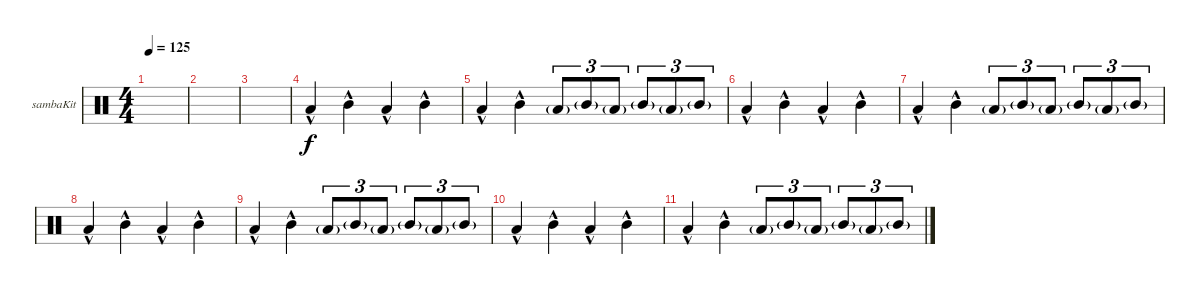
\defaultSystemsLayout 4
\bracketExtendMode groupsimilarinstruments
\firstSystemTrackNameOrientation horizontal
\otherSystemsTrackNameOrientation horizontal
\track ("Kit-Samba" "sambaKit") {instrument percussion}
\staff {score}
\articulation defaults
\ts (4 4)
\tempo 125
\clef neutral
\scale
0.333333
\ks c
|
\scale
0.333333 |
\scale
0.333333 |
\scale
0.333333 "Low Tom (hit)"{hac}.4 "Mid Tom (hit)"{hac}.4 "Low Tom (hit)"{hac}.4 "Mid Tom (hit)"{hac}.4 |
\scale
0.333333 "Low Tom (hit)"{hac}.4 "Mid Tom (hit)"{hac}.4 "Low Tom (hit)"{g}.8{tu (3 2)} "Mid Tom (hit)"{g}.8{tu (3 2)} "Low Tom (hit)"{g}.8{tu (3 2)} "Mid Tom (hit)"{g}.8{tu (3 2)} "Low Tom (hit)"{g}.8{tu (3 2)} "Mid Tom (hit)"{g}.8{tu (3 2)} |
\scale
0.333333 "Low Tom (hit)"{hac}.4 "Mid Tom (hit)"{hac}.4 "Low Tom (hit)"{hac}.4 "Mid Tom (hit)"{hac}.4 |
\scale
0.333333 "Low Tom (hit)"{hac}.4 "Mid Tom (hit)"{hac}.4 "Low Tom (hit)"{g}.8{tu (3 2)} "Mid Tom (hit)"{g}.8{tu (3 2)} "Low Tom (hit)"{g}.8{tu (3 2)} "Mid Tom (hit)"{g}.8{tu (3 2)} "Low Tom (hit)"{g}.8{tu (3 2)} "Mid Tom (hit)"{g}.8{tu (3 2)} |
\scale
0.333333 "Low Tom (hit)"{hac}.4 "Mid Tom (hit)"{hac}.4 "Low Tom (hit)"{hac}.4 "Mid Tom (hit)"{hac}.4 |
\scale
0.333333 "Low Tom (hit)"{hac}.4 "Mid Tom (hit)"{hac}.4 "Low Tom (hit)"{g}.8{tu (3 2)} "Mid Tom (hit)"{g}.8{tu (3 2)} "Low Tom (hit)"{g}.8{tu (3 2)} "Mid Tom (hit)"{g}.8{tu (3 2)} "Low Tom (hit)"{g}.8{tu (3 2)} "Mid Tom (hit)"{g}.8{tu (3 2)} |
\scale
0.333333 "Low Tom (hit)"{hac}.4 "Mid Tom (hit)"{hac}.4 "Low Tom (hit)"{hac}.4 "Mid Tom (hit)"{hac}.4 |
\scale
0.333333 "Low Tom (hit)"{hac}.4 "Mid Tom (hit)"{hac}.4 "Low Tom (hit)"{g}.8{tu (3 2)} "Mid Tom (hit)"{g}.8{tu (3 2)} "Low Tom (hit)"{g}.8{tu (3 2)} "Mid Tom (hit)"{g}.8{tu (3 2)} "Low Tom (hit)"{g}.8{tu (3 2)} "Mid Tom (hit)"{g}.8{tu (3 2)} |
\scale
0.333333 |
\scale
0.333333 |
\scale
0.333333 |
\scale
0.333333 |
\scale
0.333333
